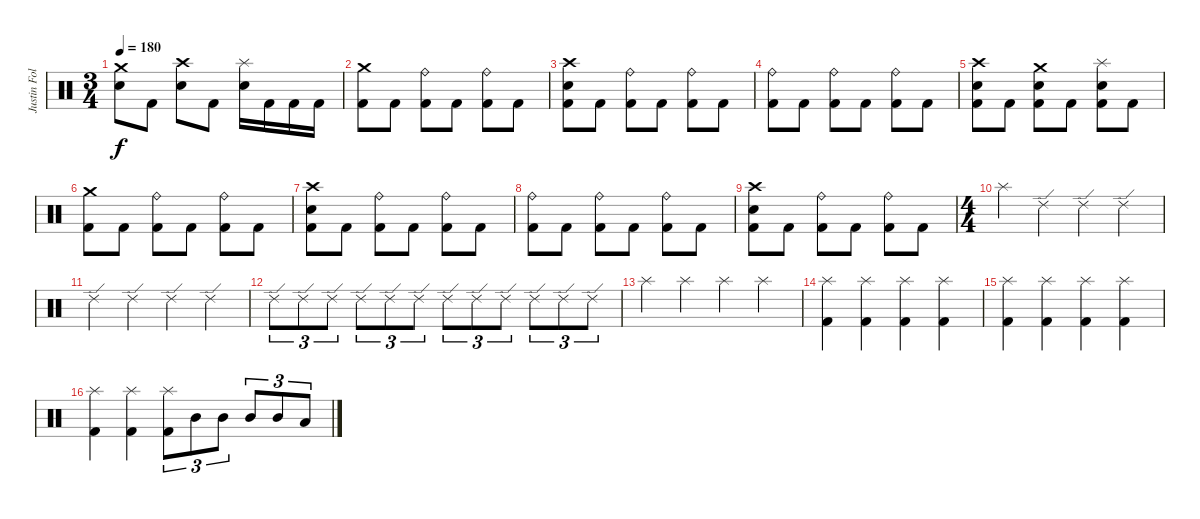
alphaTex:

\track ("Justin Foley" "Justin Fol") {instrument percussion}
\staff {score}
\articulation defaults
\ts (3 4)
\tempo 180
\clef neutral
\ks c
("Crash medium (hit)" "Electric Snare (hit)").8{dy f} "Kick (hit) 2".8 ("Crash high (hit)" "Electric Snare (hit)").8 "Kick (hit) 2".8 ("Splash (hit)" "Electric Snare (hit)").16 "Kick (hit) 2".16 "Kick (hit) 2".16 "Kick (hit) 2".16 |
("Crash medium (hit)" "Kick (hit) 2").8 "Kick (hit) 2".8 ("Ride (bell)" "Kick (hit) 2").8 "Kick (hit) 2".8 ("Ride (bell)" "Kick (hit) 2").8 "Kick (hit) 2".8 |
("Crash high (hit)" "Electric Snare (hit)" "Kick (hit) 2").8 "Kick (hit) 2".8 ("Ride (bell)" "Kick (hit) 2").8 "Kick (hit) 2".8 ("Ride (bell)" "Kick (hit) 2").8 "Kick (hit) 2".8 |
("Ride (bell)" "Kick (hit) 2").8 "Kick (hit) 2".8 ("Ride (bell)" "Kick (hit) 2").8 "Kick (hit) 2".8 ("Ride (bell)" "Kick (hit) 2").8 "Kick (hit) 2".8 |
("Crash high (hit)" "Electric Snare (hit)" "Kick (hit) 2").8 "Kick (hit) 2".8 ("Crash medium (hit)" "Electric Snare (hit)" "Kick (hit) 2").8 "Kick (hit) 2".8 ("Splash (hit)" "Electric Snare (hit)" "Kick (hit) 2").8 "Kick (hit) 2".8 |
("Crash medium (hit)" "Kick (hit) 2").8 "Kick (hit) 2".8 ("Ride (bell)" "Kick (hit) 2").8 "Kick (hit) 2".8 ("Ride (bell)" "Kick (hit) 2").8 "Kick (hit) 2".8 |
("Crash high (hit)" "Electric Snare (hit)" "Kick (hit) 2").8 "Kick (hit) 2".8 ("Ride (bell)" "Kick (hit) 2").8 "Kick (hit) 2".8 ("Ride (bell)" "Kick (hit) 2").8 "Kick (hit) 2".8 |
("Ride (bell)" "Kick (hit) 2").8 "Kick (hit) 2".8 ("Ride (bell)" "Kick (hit) 2").8 "Kick (hit) 2".8 ("Ride (bell)" "Kick (hit) 2").8 "Kick (hit) 2".8 |
("Crash high (hit)" "Electric Snare (hit)" "Kick (hit) 2").8 "Kick (hit) 2".8 ("Ride (bell)" "Kick (hit) 2").8 "Kick (hit) 2".8 ("Ride (bell)" "Kick (hit) 2").8 "Kick (hit) 2".8 |
\ts (4 4)
"Splash (hit)".4 "Ride (edge) 2".4 "Ride (edge) 2".4 "Ride (edge) 2".4 |
"Ride (edge) 2".4 "Ride (edge) 2".4 "Ride (edge) 2".4 "Ride (edge) 2".4 |
"Ride (edge) 2".8{tu (3 2)} "Ride (edge) 2".8{tu (3 2)} "Ride (edge) 2".8{tu (3 2)} "Ride (edge) 2".8{tu (3 2)} "Ride (edge) 2".8{tu (3 2)} "Ride (edge) 2".8{tu (3 2)} "Ride (edge) 2".8{tu (3 2)} "Ride (edge) 2".8{tu (3 2)} "Ride (edge) 2".8{tu (3 2)} "Ride (edge) 2".8{tu (3 2)} "Ride (edge) 2".8{tu (3 2)} "Ride (edge) 2".8{tu (3 2)} |
"Splash (hit)".4 "Splash (hit)".4 "Splash (hit)".4 "Splash (hit)".4 |
("Splash (hit)" "Kick (hit) 2").4 ("Splash (hit)" "Kick (hit) 2").4 ("Splash (hit)" "Kick (hit) 2").4 ("Splash (hit)" "Kick (hit) 2").4 |
("Splash (hit)" "Kick (hit) 2").4 ("Splash (hit)" "Kick (hit) 2").4 ("Splash (hit)" "Kick (hit) 2").4 ("Splash (hit)" "Kick (hit) 2").4 |
("Splash (hit)" "Kick (hit) 2").4 ("Splash (hit)" "Kick (hit) 2").4 ("Splash (hit)" "Kick (hit) 2").8{tu (3 2)} "Mid Tom (hit)".8{tu (3 2)} "Mid Tom (hit)".8{tu (3 2)} "Mid Tom (hit)".8{tu (3 2)} "Mid Tom (hit)".8{tu (3 2)} "Low Tom (hit)".8{tu (3 2)}
